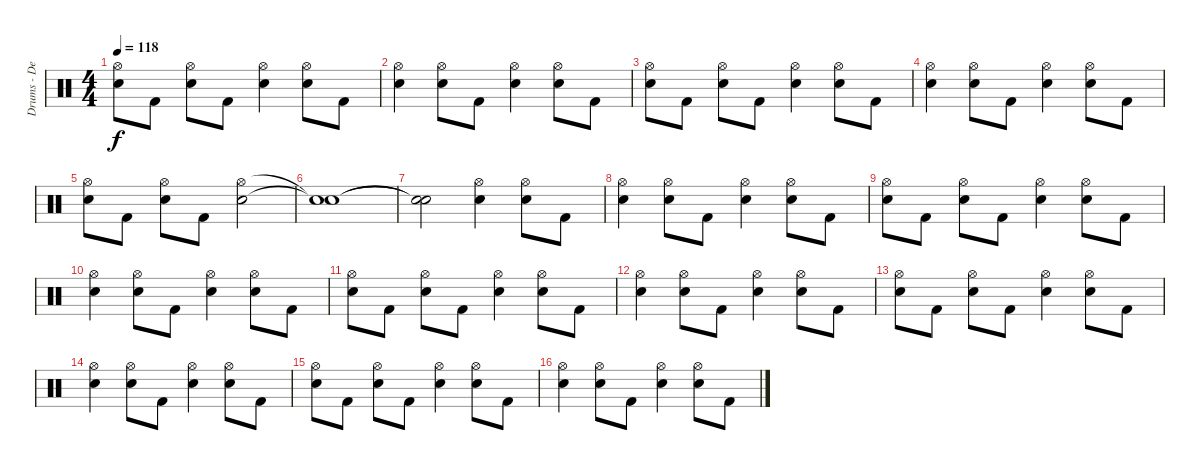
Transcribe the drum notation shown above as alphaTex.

\track ("Drums - Densmore" "Drums - De") {instrument percussion}
\staff {score}
\articulation defaults
\ts (4 4)
\tempo 118
\clef neutral
\ks c
("Hi-Hat (open)" "Electric Snare (hit)").8{dy f} "Kick (hit) 2".8 ("Hi-Hat (open)" "Electric Snare (hit)").8 "Kick (hit) 2".8 ("Hi-Hat (open)" "Electric Snare (hit)").4 ("Hi-Hat (open)" "Electric Snare (hit)").8 "Kick (hit) 2".8 |
("Hi-Hat (open)" "Electric Snare (hit)").4 ("Hi-Hat (open)" "Electric Snare (hit)").8 "Kick (hit) 2".8 ("Hi-Hat (open)" "Electric Snare (hit)").4 ("Hi-Hat (open)" "Electric Snare (hit)").8 "Kick (hit) 2".8 |
("Hi-Hat (open)" "Electric Snare (hit)").8 "Kick (hit) 2".8 ("Hi-Hat (open)" "Electric Snare (hit)").8 "Kick (hit) 2".8 ("Hi-Hat (open)" "Electric Snare (hit)").4 ("Hi-Hat (open)" "Electric Snare (hit)").8 "Kick (hit) 2".8 |
("Hi-Hat (open)" "Electric Snare (hit)").4 ("Hi-Hat (open)" "Electric Snare (hit)").8 "Kick (hit) 2".8 ("Hi-Hat (open)" "Electric Snare (hit)").4 ("Hi-Hat (open)" "Electric Snare (hit)").8 "Kick (hit) 2".8 |
("Hi-Hat (open)" "Electric Snare (hit)").8 "Kick (hit) 2".8 ("Hi-Hat (open)" "Electric Snare (hit)").8 "Kick (hit) 2".8 ("Electric Snare (hit)" "Hi-Hat (open)").2 |
("Snare (hit)"{t} "Snare (hit)"{t}).1 |
("Snare (hit)"{t} "Snare (hit)"{t}).2 ("Hi-Hat (open)" "Electric Snare (hit)").4 ("Hi-Hat (open)" "Electric Snare (hit)").8 "Kick (hit) 2".8 |
("Hi-Hat (open)" "Electric Snare (hit)").4 ("Hi-Hat (open)" "Electric Snare (hit)").8 "Kick (hit) 2".8 ("Hi-Hat (open)" "Electric Snare (hit)").4 ("Hi-Hat (open)" "Electric Snare (hit)").8 "Kick (hit) 2".8 |
("Hi-Hat (open)" "Electric Snare (hit)").8 "Kick (hit) 2".8 ("Hi-Hat (open)" "Electric Snare (hit)").8 "Kick (hit) 2".8 ("Hi-Hat (open)" "Electric Snare (hit)").4 ("Hi-Hat (open)" "Electric Snare (hit)").8 "Kick (hit) 2".8 |
("Hi-Hat (open)" "Electric Snare (hit)").4 ("Hi-Hat (open)" "Electric Snare (hit)").8 "Kick (hit) 2".8 ("Hi-Hat (open)" "Electric Snare (hit)").4 ("Hi-Hat (open)" "Electric Snare (hit)").8 "Kick (hit) 2".8 |
("Hi-Hat (open)" "Electric Snare (hit)").8 "Kick (hit) 2".8 ("Hi-Hat (open)" "Electric Snare (hit)").8 "Kick (hit) 2".8 ("Hi-Hat (open)" "Electric Snare (hit)").4 ("Hi-Hat (open)" "Electric Snare (hit)").8 "Kick (hit) 2".8 |
("Hi-Hat (open)" "Electric Snare (hit)").4 ("Hi-Hat (open)" "Electric Snare (hit)").8 "Kick (hit) 2".8 ("Hi-Hat (open)" "Electric Snare (hit)").4 ("Hi-Hat (open)" "Electric Snare (hit)").8 "Kick (hit) 2".8 |
("Hi-Hat (open)" "Electric Snare (hit)").8 "Kick (hit) 2".8 ("Hi-Hat (open)" "Electric Snare (hit)").8 "Kick (hit) 2".8 ("Hi-Hat (open)" "Electric Snare (hit)").4 ("Hi-Hat (open)" "Electric Snare (hit)").8 "Kick (hit) 2".8 |
("Hi-Hat (open)" "Electric Snare (hit)").4 ("Hi-Hat (open)" "Electric Snare (hit)").8 "Kick (hit) 2".8 ("Hi-Hat (open)" "Electric Snare (hit)").4 ("Hi-Hat (open)" "Electric Snare (hit)").8 "Kick (hit) 2".8 |
("Hi-Hat (open)" "Electric Snare (hit)").8 "Kick (hit) 2".8 ("Hi-Hat (open)" "Electric Snare (hit)").8 "Kick (hit) 2".8 ("Electric Snare (hit)" "Hi-Hat (open)").4 ("Hi-Hat (open)" "Electric Snare (hit)").8 "Kick (hit) 2".8 |
("Hi-Hat (open)" "Electric Snare (hit)").4 ("Hi-Hat (open)" "Electric Snare (hit)").8 "Kick (hit) 2".8 ("Hi-Hat (open)" "Electric Snare (hit)").4 ("Hi-Hat (open)" "Electric Snare (hit)").8 "Kick (hit) 2".8
